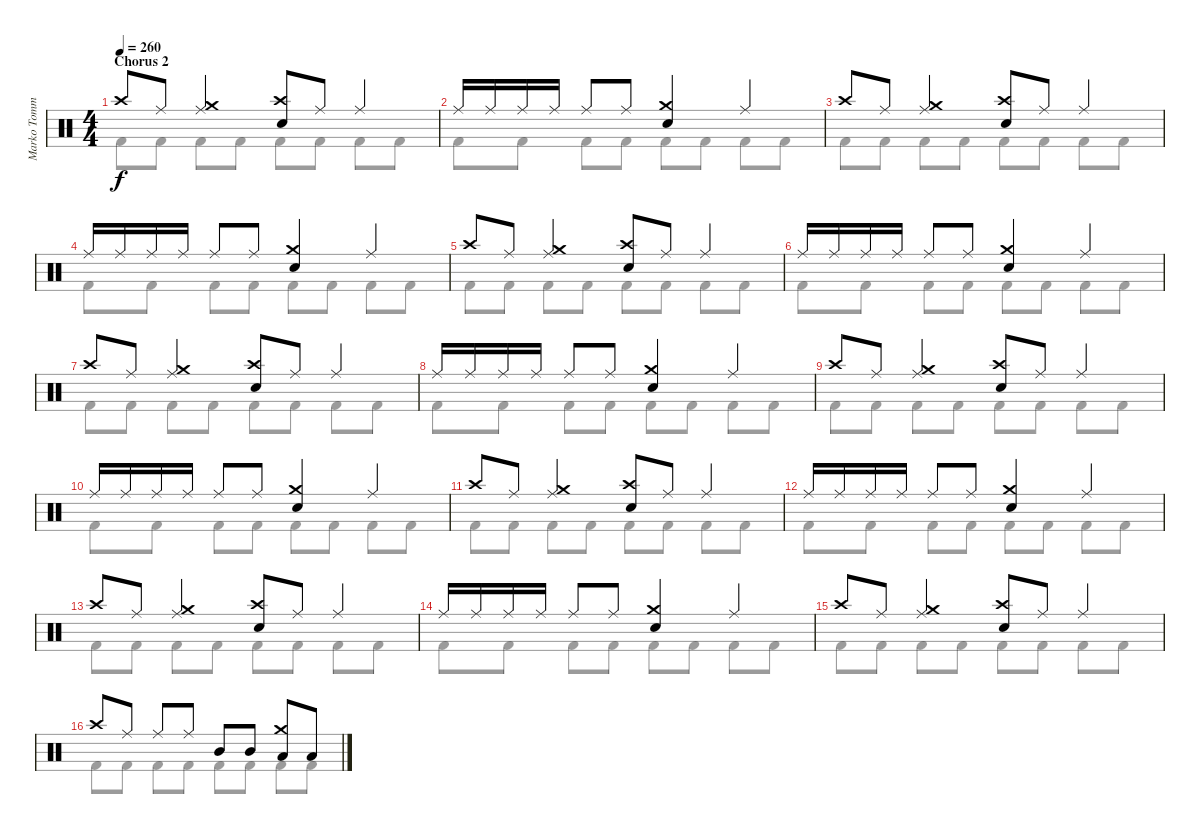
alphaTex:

\track ("Marko Tommila (drums)" "Marko Tomm") {instrument percussion}
\staff {score}
\articulation defaults
\voice
\ts (4 4)
\section ("" "Chorus 2")
\tempo 260
\clef neutral
\ks aminor "Crash high (hit)".8{dy f} "Ride (middle)".8
("Ride (middle)" "Crash medium (hit)").4 ("Crash high (hit)" "Electric Snare (hit)").8 "Ride (middle)".8 "Ride (middle)".4 |
"Ride (middle)".16 "Ride (middle)".16 "Ride (middle)".16 "Ride (middle)".16 "Ride (middle)".8 "Ride (middle)".8 ("Crash medium (hit)" "Electric Snare (hit)").4 "Ride (middle)".4 |
"Crash high (hit)".8 "Ride (middle)".8 ("Ride (middle)" "Crash medium (hit)").4 ("Crash high (hit)" "Electric Snare (hit)").8 "Ride (middle)".8 "Ride (middle)".4 |
"Ride (middle)".16 "Ride (middle)".16 "Ride (middle)".16 "Ride (middle)".16 "Ride (middle)".8 "Ride (middle)".8 ("Crash medium (hit)" "Electric Snare (hit)").4 "Ride (middle)".4 |
"Crash high (hit)".8 "Ride (middle)".8 ("Ride (middle)" "Crash medium (hit)").4 ("Crash high (hit)" "Electric Snare (hit)").8 "Ride (middle)".8 "Ride (middle)".4 |
"Ride (middle)".16 "Ride (middle)".16 "Ride (middle)".16 "Ride (middle)".16 "Ride (middle)".8 "Ride (middle)".8 ("Crash medium (hit)" "Electric Snare (hit)").4 "Ride (middle)".4 |
"Crash high (hit)".8 "Ride (middle)".8 ("Ride (middle)" "Crash medium (hit)").4 ("Crash high (hit)" "Electric Snare (hit)").8 "Ride (middle)".8 "Ride (middle)".4 |
"Ride (middle)".16 "Ride (middle)".16 "Ride (middle)".16 "Ride (middle)".16 "Ride (middle)".8 "Ride (middle)".8 ("Crash medium (hit)" "Electric Snare (hit)").4 "Ride (middle)".4 |
"Crash high (hit)".8 "Ride (middle)".8 ("Ride (middle)" "Crash medium (hit)").4 ("Crash high (hit)" "Electric Snare (hit)").8 "Ride (middle)".8 "Ride (middle)".4 |
"Ride (middle)".16 "Ride (middle)".16 "Ride (middle)".16 "Ride (middle)".16 "Ride (middle)".8 "Ride (middle)".8 ("Crash medium (hit)" "Electric Snare (hit)").4 "Ride (middle)".4 |
"Crash high (hit)".8 "Ride (middle)".8 ("Ride (middle)" "Crash medium (hit)").4 ("Crash high (hit)" "Electric Snare (hit)").8 "Ride (middle)".8 "Ride (middle)".4 |
"Ride (middle)".16 "Ride (middle)".16 "Ride (middle)".16 "Ride (middle)".16 "Ride (middle)".8 "Ride (middle)".8 ("Crash medium (hit)" "Electric Snare (hit)").4 "Ride (middle)".4 |
"Crash high (hit)".8 "Ride (middle)".8 ("Ride (middle)" "Crash medium (hit)").4 ("Crash high (hit)" "Electric Snare (hit)").8 "Ride (middle)".8 "Ride (middle)".4 |
"Ride (middle)".16 "Ride (middle)".16 "Ride (middle)".16 "Ride (middle)".16 "Ride (middle)".8 "Ride (middle)".8 ("Crash medium (hit)" "Electric Snare (hit)").4 "Ride (middle)".4 |
"Crash high (hit)".8 "Ride (middle)".8 ("Ride (middle)" "Crash medium (hit)").4 ("Crash high (hit)" "Electric Snare (hit)").8 "Ride (middle)".8 "Ride (middle)".4 |
"Crash high (hit)".8 "Ride (middle)".8 "Ride (middle)".8 "Ride (middle)".8 "Mid Tom (hit)".8 "Mid Tom (hit)".8 ("Low Tom (hit)" "Crash medium (hit)").8 "Low Tom (hit)".8
\voice
\clef neutral
\ottava regular
\simile none
\ks aminor "Kick (hit) 2".8{dy f} "Kick (hit) 2".8 "Kick (hit) 2".8 "Kick (hit) 2".8 "Kick (hit) 2".8 "Kick (hit) 2".8 "Kick (hit) 2".8 "Kick (hit) 2".8
|
"Kick (hit) 2".8 "Kick (hit) 2".8 "Kick (hit) 2".8 "Kick (hit) 2".8 "Kick (hit) 2".8 "Kick (hit) 2".8 "Kick (hit) 2".8 "Kick (hit) 2".8 |
"Kick (hit) 2".8 "Kick (hit) 2".8 "Kick (hit) 2".8 "Kick (hit) 2".8 "Kick (hit) 2".8 "Kick (hit) 2".8 "Kick (hit) 2".8 "Kick (hit) 2".8 |
"Kick (hit) 2".8 "Kick (hit) 2".8 "Kick (hit) 2".8 "Kick (hit) 2".8 "Kick (hit) 2".8 "Kick (hit) 2".8 "Kick (hit) 2".8 "Kick (hit) 2".8 |
"Kick (hit) 2".8 "Kick (hit) 2".8 "Kick (hit) 2".8 "Kick (hit) 2".8 "Kick (hit) 2".8 "Kick (hit) 2".8 "Kick (hit) 2".8 "Kick (hit) 2".8 |
"Kick (hit) 2".8 "Kick (hit) 2".8 "Kick (hit) 2".8 "Kick (hit) 2".8 "Kick (hit) 2".8 "Kick (hit) 2".8 "Kick (hit) 2".8 "Kick (hit) 2".8 |
"Kick (hit) 2".8 "Kick (hit) 2".8 "Kick (hit) 2".8 "Kick (hit) 2".8 "Kick (hit) 2".8 "Kick (hit) 2".8 "Kick (hit) 2".8 "Kick (hit) 2".8 |
"Kick (hit) 2".8 "Kick (hit) 2".8 "Kick (hit) 2".8 "Kick (hit) 2".8 "Kick (hit) 2".8 "Kick (hit) 2".8 "Kick (hit) 2".8 "Kick (hit) 2".8 |
"Kick (hit) 2".8 "Kick (hit) 2".8 "Kick (hit) 2".8 "Kick (hit) 2".8 "Kick (hit) 2".8 "Kick (hit) 2".8 "Kick (hit) 2".8 "Kick (hit) 2".8 |
"Kick (hit) 2".8 "Kick (hit) 2".8 "Kick (hit) 2".8 "Kick (hit) 2".8 "Kick (hit) 2".8 "Kick (hit) 2".8 "Kick (hit) 2".8 "Kick (hit) 2".8 |
"Kick (hit) 2".8 "Kick (hit) 2".8 "Kick (hit) 2".8 "Kick (hit) 2".8 "Kick (hit) 2".8 "Kick (hit) 2".8 "Kick (hit) 2".8 "Kick (hit) 2".8 |
"Kick (hit) 2".8 "Kick (hit) 2".8 "Kick (hit) 2".8 "Kick (hit) 2".8 "Kick (hit) 2".8 "Kick (hit) 2".8 "Kick (hit) 2".8 "Kick (hit) 2".8 |
"Kick (hit) 2".8 "Kick (hit) 2".8 "Kick (hit) 2".8 "Kick (hit) 2".8 "Kick (hit) 2".8 "Kick (hit) 2".8 "Kick (hit) 2".8 "Kick (hit) 2".8 |
"Kick (hit) 2".8 "Kick (hit) 2".8 "Kick (hit) 2".8 "Kick (hit) 2".8 "Kick (hit) 2".8 "Kick (hit) 2".8 "Kick (hit) 2".8 "Kick (hit) 2".8 |
"Kick (hit) 2".8 "Kick (hit) 2".8 "Kick (hit) 2".8 "Kick (hit) 2".8 "Kick (hit) 2".8 "Kick (hit) 2".8 "Kick (hit) 2".8 "Kick (hit) 2".8 |
"Kick (hit) 2".8 "Kick (hit) 2".8 "Kick (hit) 2".8 "Kick (hit) 2".8 "Kick (hit) 2".8 "Kick (hit) 2".8 "Kick (hit) 2".8 "Kick (hit) 2".8
